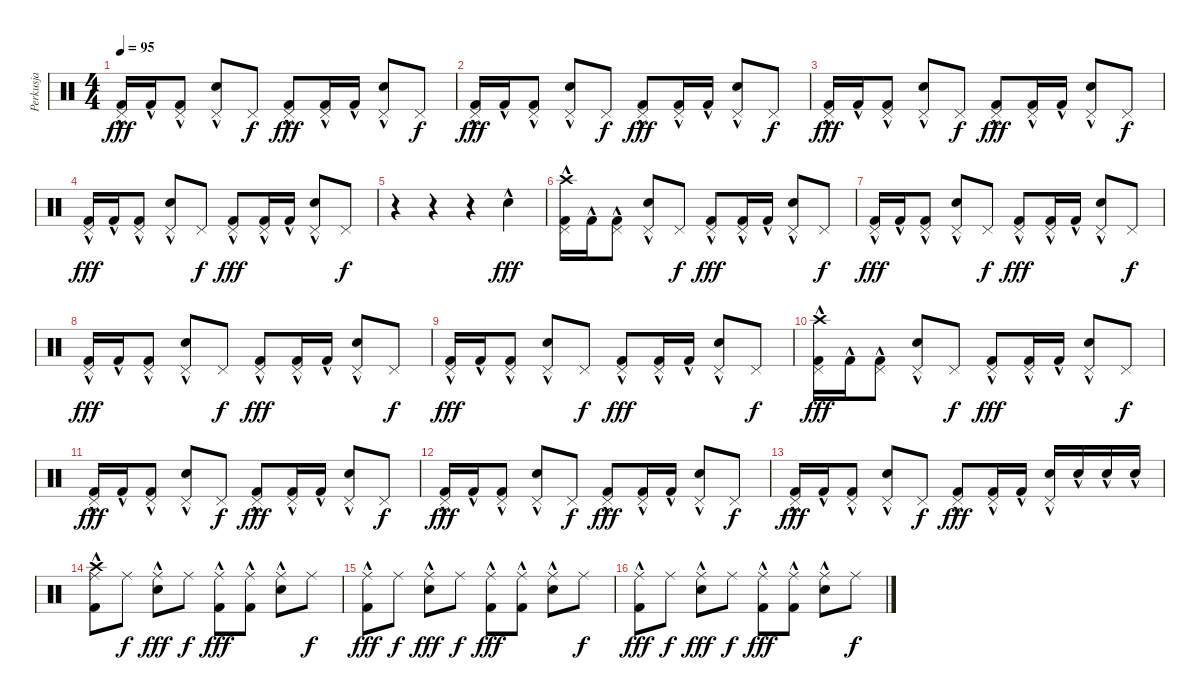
\track ("Perkusja" "Perkusja") {instrument percussion}
\staff {score}
\articulation defaults
\ts (4 4)
\tempo 95
\clef neutral
\ks c
("Pedal Hi-Hat (hit)" "Kick (hit) 2"{hac}).16{dy fff} "Kick (hit) 2"{hac}.16 ("Pedal Hi-Hat (hit)" "Kick (hit) 2"{hac}).8 ("Pedal Hi-Hat (hit)" "Electric Snare (hit)"{hac}).8 "Pedal Hi-Hat (hit)".8{dy f} ("Pedal Hi-Hat (hit)" "Kick (hit) 2"{hac}).8{dy fff} ("Pedal Hi-Hat (hit)" "Kick (hit) 2"{hac}).16 "Kick (hit) 2"{hac}.16 ("Pedal Hi-Hat (hit)" "Electric Snare (hit)"{hac}).8 "Pedal Hi-Hat (hit)".8{dy f} |
("Pedal Hi-Hat (hit)" "Kick (hit) 2"{hac}).16{dy fff} "Kick (hit) 2"{hac}.16 ("Pedal Hi-Hat (hit)" "Kick (hit) 2"{hac}).8 ("Pedal Hi-Hat (hit)" "Electric Snare (hit)"{hac}).8 "Pedal Hi-Hat (hit)".8{dy f} ("Pedal Hi-Hat (hit)" "Kick (hit) 2"{hac}).8{dy fff} ("Pedal Hi-Hat (hit)" "Kick (hit) 2"{hac}).16 "Kick (hit) 2"{hac}.16 ("Pedal Hi-Hat (hit)" "Electric Snare (hit)"{hac}).8 "Pedal Hi-Hat (hit)".8{dy f} |
("Pedal Hi-Hat (hit)" "Kick (hit) 2"{hac}).16{dy fff} "Kick (hit) 2"{hac}.16 ("Pedal Hi-Hat (hit)" "Kick (hit) 2"{hac}).8 ("Pedal Hi-Hat (hit)" "Electric Snare (hit)"{hac}).8 "Pedal Hi-Hat (hit)".8{dy f} ("Pedal Hi-Hat (hit)" "Kick (hit) 2"{hac}).8{dy fff} ("Pedal Hi-Hat (hit)" "Kick (hit) 2"{hac}).16 "Kick (hit) 2"{hac}.16 ("Pedal Hi-Hat (hit)" "Electric Snare (hit)"{hac}).8 "Pedal Hi-Hat (hit)".8{dy f} |
("Pedal Hi-Hat (hit)" "Kick (hit) 2"{hac}).16{dy fff} "Kick (hit) 2"{hac}.16 ("Pedal Hi-Hat (hit)" "Kick (hit) 2"{hac}).8 ("Pedal Hi-Hat (hit)" "Electric Snare (hit)"{hac}).8 "Pedal Hi-Hat (hit)".8{dy f} ("Pedal Hi-Hat (hit)" "Kick (hit) 2"{hac}).8{dy fff} ("Pedal Hi-Hat (hit)" "Kick (hit) 2"{hac}).16 "Kick (hit) 2"{hac}.16 ("Pedal Hi-Hat (hit)" "Electric Snare (hit)"{hac}).8 "Pedal Hi-Hat (hit)".8{dy f} |
r.4 r.4 r.4 "Electric Snare (hit)"{hac}.4{dy fff} |
("Crash high (hit)" "Pedal Hi-Hat (hit)" "Kick (hit) 2"{hac}).16 "Kick (hit) 2"{hac}.16 ("Pedal Hi-Hat (hit)" "Kick (hit) 2"{hac}).8 ("Pedal Hi-Hat (hit)" "Electric Snare (hit)"{hac}).8 "Pedal Hi-Hat (hit)".8{dy f} ("Pedal Hi-Hat (hit)" "Kick (hit) 2"{hac}).8{dy fff} ("Pedal Hi-Hat (hit)" "Kick (hit) 2"{hac}).16 "Kick (hit) 2"{hac}.16 ("Pedal Hi-Hat (hit)" "Electric Snare (hit)"{hac}).8 "Pedal Hi-Hat (hit)".8{dy f} |
("Pedal Hi-Hat (hit)" "Kick (hit) 2"{hac}).16{dy fff} "Kick (hit) 2"{hac}.16 ("Pedal Hi-Hat (hit)" "Kick (hit) 2"{hac}).8 ("Pedal Hi-Hat (hit)" "Electric Snare (hit)"{hac}).8 "Pedal Hi-Hat (hit)".8{dy f} ("Pedal Hi-Hat (hit)" "Kick (hit) 2"{hac}).8{dy fff} ("Pedal Hi-Hat (hit)" "Kick (hit) 2"{hac}).16 "Kick (hit) 2"{hac}.16 ("Pedal Hi-Hat (hit)" "Electric Snare (hit)"{hac}).8 "Pedal Hi-Hat (hit)".8{dy f} |
("Pedal Hi-Hat (hit)" "Kick (hit) 2"{hac}).16{dy fff} "Kick (hit) 2"{hac}.16 ("Pedal Hi-Hat (hit)" "Kick (hit) 2"{hac}).8 ("Pedal Hi-Hat (hit)" "Electric Snare (hit)"{hac}).8 "Pedal Hi-Hat (hit)".8{dy f} ("Pedal Hi-Hat (hit)" "Kick (hit) 2"{hac}).8{dy fff} ("Pedal Hi-Hat (hit)" "Kick (hit) 2"{hac}).16 "Kick (hit) 2"{hac}.16 ("Pedal Hi-Hat (hit)" "Electric Snare (hit)"{hac}).8 "Pedal Hi-Hat (hit)".8{dy f} |
("Pedal Hi-Hat (hit)" "Kick (hit) 2"{hac}).16{dy fff} "Kick (hit) 2"{hac}.16 ("Pedal Hi-Hat (hit)" "Kick (hit) 2"{hac}).8 ("Pedal Hi-Hat (hit)" "Electric Snare (hit)"{hac}).8 "Pedal Hi-Hat (hit)".8{dy f} ("Pedal Hi-Hat (hit)" "Kick (hit) 2"{hac}).8{dy fff} ("Pedal Hi-Hat (hit)" "Kick (hit) 2"{hac}).16 "Kick (hit) 2"{hac}.16 ("Pedal Hi-Hat (hit)" "Electric Snare (hit)"{hac}).8 "Pedal Hi-Hat (hit)".8{dy f} |
("Crash high (hit)" "Pedal Hi-Hat (hit)" "Kick (hit) 2"{hac}).16{dy fff} "Kick (hit) 2"{hac}.16 ("Pedal Hi-Hat (hit)" "Kick (hit) 2"{hac}).8 ("Pedal Hi-Hat (hit)" "Electric Snare (hit)"{hac}).8 "Pedal Hi-Hat (hit)".8{dy f} ("Pedal Hi-Hat (hit)" "Kick (hit) 2"{hac}).8{dy fff} ("Pedal Hi-Hat (hit)" "Kick (hit) 2"{hac}).16 "Kick (hit) 2"{hac}.16 ("Pedal Hi-Hat (hit)" "Electric Snare (hit)"{hac}).8 "Pedal Hi-Hat (hit)".8{dy f} |
("Pedal Hi-Hat (hit)" "Kick (hit) 2"{hac}).16{dy fff} "Kick (hit) 2"{hac}.16 ("Pedal Hi-Hat (hit)" "Kick (hit) 2"{hac}).8 ("Pedal Hi-Hat (hit)" "Electric Snare (hit)"{hac}).8 "Pedal Hi-Hat (hit)".8{dy f} ("Pedal Hi-Hat (hit)" "Kick (hit) 2"{hac}).8{dy fff} ("Pedal Hi-Hat (hit)" "Kick (hit) 2"{hac}).16 "Kick (hit) 2"{hac}.16 ("Pedal Hi-Hat (hit)" "Electric Snare (hit)"{hac}).8 "Pedal Hi-Hat (hit)".8{dy f} |
("Pedal Hi-Hat (hit)" "Kick (hit) 2"{hac}).16{dy fff} "Kick (hit) 2"{hac}.16 ("Pedal Hi-Hat (hit)" "Kick (hit) 2"{hac}).8 ("Pedal Hi-Hat (hit)" "Electric Snare (hit)"{hac}).8 "Pedal Hi-Hat (hit)".8{dy f} ("Pedal Hi-Hat (hit)" "Kick (hit) 2"{hac}).8{dy fff} ("Pedal Hi-Hat (hit)" "Kick (hit) 2"{hac}).16 "Kick (hit) 2"{hac}.16 ("Pedal Hi-Hat (hit)" "Electric Snare (hit)"{hac}).8 "Pedal Hi-Hat (hit)".8{dy f} |
("Pedal Hi-Hat (hit)" "Kick (hit) 2"{hac}).16{dy fff} "Kick (hit) 2"{hac}.16 ("Pedal Hi-Hat (hit)" "Kick (hit) 2"{hac}).8 ("Pedal Hi-Hat (hit)" "Electric Snare (hit)"{hac}).8 "Pedal Hi-Hat (hit)".8{dy f} ("Pedal Hi-Hat (hit)" "Kick (hit) 2"{hac}).8{dy fff} ("Pedal Hi-Hat (hit)" "Kick (hit) 2"{hac}).16 "Kick (hit) 2"{hac}.16 ("Pedal Hi-Hat (hit)" "Electric Snare (hit)"{hac}).16 "Electric Snare (hit)"{hac}.16 "Electric Snare (hit)"{hac}.16 "Electric Snare (hit)"{hac}.16 |
("Crash high (hit)" "Ride (middle)" "Kick (hit) 2"{hac}).8 "Ride (middle)".8{dy f} ("Ride (middle)" "Electric Snare (hit)"{hac}).8{dy fff} "Ride (middle)".8{dy f} ("Ride (middle)" "Kick (hit) 2"{hac}).8{dy fff} ("Ride (middle)" "Kick (hit) 2"{hac}).8 ("Ride (middle)" "Electric Snare (hit)"{hac}).8 "Ride (middle)".8{dy f} |
("Ride (middle)" "Kick (hit) 2"{hac}).8{dy fff} "Ride (middle)".8{dy f} ("Ride (middle)" "Electric Snare (hit)"{hac}).8{dy fff} "Ride (middle)".8{dy f} ("Ride (middle)" "Kick (hit) 2"{hac}).8{dy fff} ("Ride (middle)" "Kick (hit) 2"{hac}).8 ("Ride (middle)" "Electric Snare (hit)"{hac}).8 "Ride (middle)".8{dy f} |
("Ride (middle)" "Kick (hit) 2"{hac}).8{dy fff} "Ride (middle)".8{dy f} ("Ride (middle)" "Electric Snare (hit)"{hac}).8{dy fff} "Ride (middle)".8{dy f} ("Ride (middle)" "Kick (hit) 2"{hac}).8{dy fff} ("Ride (middle)" "Kick (hit) 2"{hac}).8 ("Ride (middle)" "Electric Snare (hit)"{hac}).8 "Ride (middle)".8{dy f}
